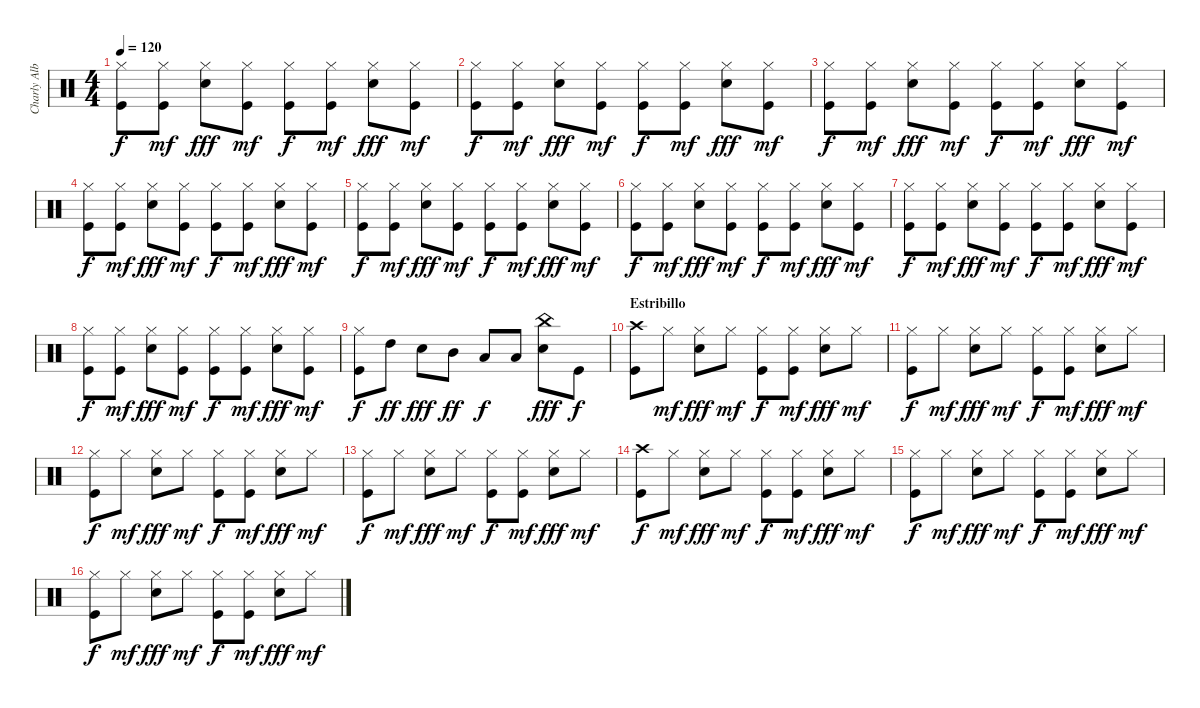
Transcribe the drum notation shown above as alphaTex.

\track ("Charly Alberti" "Charly Alb") {instrument percussion}
\staff {score}
\articulation defaults
\ts (4 4)
\tempo 120
\clef neutral
\ks c
("Kick (hit)" "Hi-Hat (closed)").8{dy f} ("Kick (hit)" "Hi-Hat (closed)").8{dy mf} ("Snare (hit) 2" "Hi-Hat (closed)").8{dy fff} ("Kick (hit)" "Hi-Hat (closed)").8{dy mf} ("Kick (hit)" "Hi-Hat (closed)").8{dy f} ("Kick (hit)" "Hi-Hat (closed)").8{dy mf} ("Snare (hit) 2" "Hi-Hat (closed)").8{dy fff} ("Kick (hit)" "Hi-Hat (closed)").8{dy mf} |
("Kick (hit)" "Hi-Hat (closed)").8{dy f} ("Kick (hit)" "Hi-Hat (closed)").8{dy mf} ("Snare (hit) 2" "Hi-Hat (closed)").8{dy fff} ("Kick (hit)" "Hi-Hat (closed)").8{dy mf} ("Kick (hit)" "Hi-Hat (closed)").8{dy f} ("Kick (hit)" "Hi-Hat (closed)").8{dy mf} ("Snare (hit) 2" "Hi-Hat (closed)").8{dy fff} ("Kick (hit)" "Hi-Hat (closed)").8{dy mf} |
("Kick (hit)" "Hi-Hat (closed)").8{dy f} ("Kick (hit)" "Hi-Hat (closed)").8{dy mf} ("Snare (hit) 2" "Hi-Hat (closed)").8{dy fff} ("Kick (hit)" "Hi-Hat (closed)").8{dy mf} ("Kick (hit)" "Hi-Hat (closed)").8{dy f} ("Kick (hit)" "Hi-Hat (closed)").8{dy mf} ("Snare (hit) 2" "Hi-Hat (closed)").8{dy fff} ("Kick (hit)" "Hi-Hat (closed)").8{dy mf} |
("Kick (hit)" "Hi-Hat (closed)").8{dy f} ("Kick (hit)" "Hi-Hat (closed)").8{dy mf} ("Snare (hit) 2" "Hi-Hat (closed)").8{dy fff} ("Kick (hit)" "Hi-Hat (closed)").8{dy mf} ("Kick (hit)" "Hi-Hat (closed)").8{dy f} ("Kick (hit)" "Hi-Hat (closed)").8{dy mf} ("Snare (hit) 2" "Hi-Hat (closed)").8{dy fff} ("Kick (hit)" "Hi-Hat (closed)").8{dy mf} |
("Kick (hit)" "Hi-Hat (closed)").8{dy f} ("Kick (hit)" "Hi-Hat (closed)").8{dy mf} ("Snare (hit) 2" "Hi-Hat (closed)").8{dy fff} ("Kick (hit)" "Hi-Hat (closed)").8{dy mf} ("Kick (hit)" "Hi-Hat (closed)").8{dy f} ("Kick (hit)" "Hi-Hat (closed)").8{dy mf} ("Snare (hit) 2" "Hi-Hat (closed)").8{dy fff} ("Kick (hit)" "Hi-Hat (closed)").8{dy mf} |
("Kick (hit)" "Hi-Hat (closed)").8{dy f} ("Kick (hit)" "Hi-Hat (closed)").8{dy mf} ("Snare (hit) 2" "Hi-Hat (closed)").8{dy fff} ("Kick (hit)" "Hi-Hat (closed)").8{dy mf} ("Kick (hit)" "Hi-Hat (closed)").8{dy f} ("Kick (hit)" "Hi-Hat (closed)").8{dy mf} ("Snare (hit) 2" "Hi-Hat (closed)").8{dy fff} ("Kick (hit)" "Hi-Hat (closed)").8{dy mf} |
("Kick (hit)" "Hi-Hat (closed)").8{dy f} ("Kick (hit)" "Hi-Hat (closed)").8{dy mf} ("Snare (hit) 2" "Hi-Hat (closed)").8{dy fff} ("Kick (hit)" "Hi-Hat (closed)").8{dy mf} ("Kick (hit)" "Hi-Hat (closed)").8{dy f} ("Kick (hit)" "Hi-Hat (closed)").8{dy mf} ("Snare (hit) 2" "Hi-Hat (closed)").8{dy fff} ("Kick (hit)" "Hi-Hat (closed)").8{dy mf} |
("Kick (hit)" "Hi-Hat (closed)").8{dy f} ("Kick (hit)" "Hi-Hat (closed)").8{dy mf} ("Snare (hit) 2" "Hi-Hat (closed)").8{dy fff} ("Kick (hit)" "Hi-Hat (closed)").8{dy mf} ("Kick (hit)" "Hi-Hat (closed)").8{dy f} ("Kick (hit)" "Hi-Hat (closed)").8{dy mf} ("Snare (hit) 2" "Hi-Hat (closed)").8{dy fff} ("Kick (hit)" "Hi-Hat (closed)").8{dy mf} |
("Kick (hit)" "Hi-Hat (closed)").8{dy f} "High Tom (hit)".8{dy ff} "Snare (hit) 2".8{dy fff} "Mid Tom (hit)".8{dy ff} "Low Tom (hit)".8{dy f} "Low Tom (hit)".8 ("Snare (hit) 2" "China (hit)").8{dy fff} "Kick (hit)".8{dy f} |
\section ("" "Estribillo")
("Kick (hit)" "Crash high (hit)").8 "Hi-Hat (closed)".8{dy mf} ("Snare (hit) 2" "Hi-Hat (closed)").8{dy fff} "Hi-Hat (closed)".8{dy mf} ("Kick (hit)" "Hi-Hat (closed)").8{dy f} ("Kick (hit)" "Hi-Hat (closed)").8{dy mf} ("Snare (hit) 2" "Hi-Hat (closed)").8{dy fff} "Hi-Hat (closed)".8{dy mf} |
("Kick (hit)" "Hi-Hat (closed)").8{dy f} "Hi-Hat (closed)".8{dy mf} ("Snare (hit) 2" "Hi-Hat (closed)").8{dy fff} "Hi-Hat (closed)".8{dy mf} ("Kick (hit)" "Hi-Hat (closed)").8{dy f} ("Kick (hit)" "Hi-Hat (closed)").8{dy mf} ("Snare (hit) 2" "Hi-Hat (closed)").8{dy fff} "Hi-Hat (closed)".8{dy mf} |
("Kick (hit)" "Hi-Hat (closed)").8{dy f} "Hi-Hat (closed)".8{dy mf} ("Snare (hit) 2" "Hi-Hat (closed)").8{dy fff} "Hi-Hat (closed)".8{dy mf} ("Kick (hit)" "Hi-Hat (closed)").8{dy f} ("Kick (hit)" "Hi-Hat (closed)").8{dy mf} ("Snare (hit) 2" "Hi-Hat (closed)").8{dy fff} "Hi-Hat (closed)".8{dy mf} |
("Kick (hit)" "Hi-Hat (closed)").8{dy f} "Hi-Hat (closed)".8{dy mf} ("Snare (hit) 2" "Hi-Hat (closed)").8{dy fff} "Hi-Hat (closed)".8{dy mf} ("Kick (hit)" "Hi-Hat (closed)").8{dy f} ("Kick (hit)" "Hi-Hat (closed)").8{dy mf} ("Snare (hit) 2" "Hi-Hat (closed)").8{dy fff} "Hi-Hat (closed)".8{dy mf} |
("Kick (hit)" "Crash high (hit)").8{dy f} "Hi-Hat (closed)".8{dy mf} ("Snare (hit) 2" "Hi-Hat (closed)").8{dy fff} "Hi-Hat (closed)".8{dy mf} ("Kick (hit)" "Hi-Hat (closed)").8{dy f} ("Kick (hit)" "Hi-Hat (closed)").8{dy mf} ("Snare (hit) 2" "Hi-Hat (closed)").8{dy fff} "Hi-Hat (closed)".8{dy mf} |
("Kick (hit)" "Hi-Hat (closed)").8{dy f} "Hi-Hat (closed)".8{dy mf} ("Snare (hit) 2" "Hi-Hat (closed)").8{dy fff} "Hi-Hat (closed)".8{dy mf} ("Kick (hit)" "Hi-Hat (closed)").8{dy f} ("Kick (hit)" "Hi-Hat (closed)").8{dy mf} ("Snare (hit) 2" "Hi-Hat (closed)").8{dy fff} "Hi-Hat (closed)".8{dy mf} |
("Kick (hit)" "Hi-Hat (closed)").8{dy f} "Hi-Hat (closed)".8{dy mf} ("Snare (hit) 2" "Hi-Hat (closed)").8{dy fff} "Hi-Hat (closed)".8{dy mf} ("Kick (hit)" "Hi-Hat (closed)").8{dy f} ("Kick (hit)" "Hi-Hat (closed)").8{dy mf} ("Snare (hit) 2" "Hi-Hat (closed)").8{dy fff} "Hi-Hat (closed)".8{dy mf}
